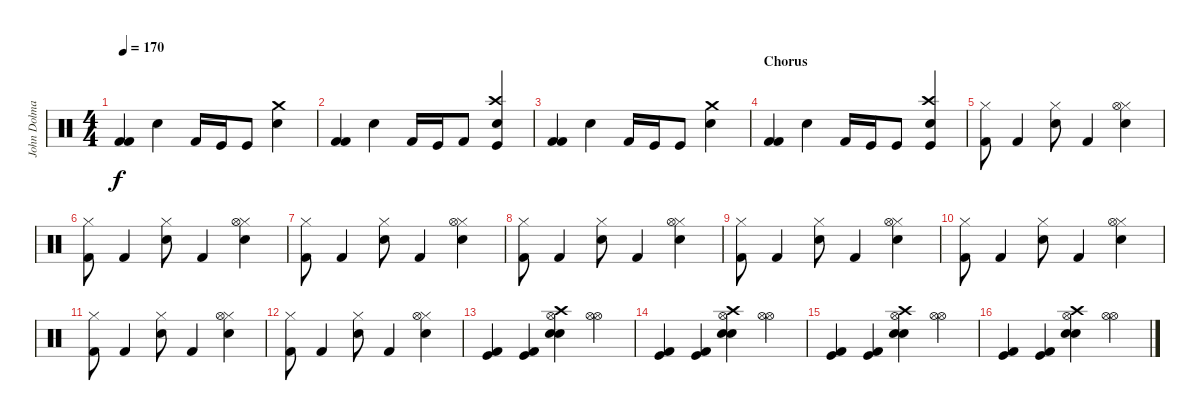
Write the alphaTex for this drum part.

\track ("John Dolmayan" "John Dolma") {instrument percussion}
\staff {score}
\articulation defaults
\ts (4 4)
\tempo 170
\clef neutral
\ks c
("Kick (hit) 2" "Kick (hit) 2").4{dy f} "Snare (hit) 2".4 "Kick (hit) 2".16 "Kick (hit)".16 "Kick (hit)".8 ("Crash medium (hit)" "Snare (hit) 2").4 |
("Kick (hit) 2" "Kick (hit) 2").4 "Snare (hit) 2".4 "Kick (hit) 2".16 "Kick (hit)".16 "Kick (hit) 2".8 ("Crash high (hit)" "Electric Snare (hit)" "Kick (hit)").4 |
("Kick (hit) 2" "Kick (hit) 2").4 "Snare (hit) 2".4 "Kick (hit) 2".16 "Kick (hit)".16 "Kick (hit)".8 ("Crash medium (hit)" "Snare (hit) 2").4 |
\section ("" "Chorus")
("Kick (hit) 2" "Kick (hit) 2").4 "Snare (hit) 2".4 "Kick (hit) 2".16 "Kick (hit)".16 "Kick (hit)".8 ("Crash high (hit)" "Electric Snare (hit)" "Kick (hit)").4 |
("Hi-Hat (closed)" "Kick (hit) 2").8 "Kick (hit) 2".4 ("Hi-Hat (closed)" "Snare (hit) 2").8 "Kick (hit) 2".4 ("Hi-Hat (closed)" "Hi-Hat (open)" "Snare (hit) 2").4 |
("Hi-Hat (closed)" "Kick (hit) 2").8 "Kick (hit) 2".4 ("Hi-Hat (closed)" "Snare (hit) 2").8 "Kick (hit) 2".4 ("Hi-Hat (closed)" "Hi-Hat (open)" "Snare (hit) 2").4 |
("Hi-Hat (closed)" "Kick (hit) 2").8 "Kick (hit) 2".4 ("Hi-Hat (closed)" "Snare (hit) 2").8 "Kick (hit) 2".4 ("Hi-Hat (closed)" "Hi-Hat (open)" "Snare (hit) 2").4 |
("Hi-Hat (closed)" "Kick (hit) 2").8 "Kick (hit) 2".4 ("Hi-Hat (closed)" "Snare (hit) 2").8 "Kick (hit) 2".4 ("Hi-Hat (closed)" "Hi-Hat (open)" "Snare (hit) 2").4 |
("Hi-Hat (closed)" "Kick (hit) 2").8 "Kick (hit) 2".4 ("Hi-Hat (closed)" "Snare (hit) 2").8 "Kick (hit) 2".4 ("Hi-Hat (closed)" "Hi-Hat (open)" "Snare (hit) 2").4 |
("Hi-Hat (closed)" "Kick (hit) 2").8 "Kick (hit) 2".4 ("Hi-Hat (closed)" "Snare (hit) 2").8 "Kick (hit) 2".4 ("Hi-Hat (closed)" "Hi-Hat (open)" "Snare (hit) 2").4 |
("Hi-Hat (closed)" "Kick (hit) 2").8 "Kick (hit) 2".4 ("Hi-Hat (closed)" "Snare (hit) 2").8 "Kick (hit) 2".4 ("Hi-Hat (closed)" "Hi-Hat (open)" "Snare (hit) 2").4 |
("Hi-Hat (closed)" "Kick (hit) 2").8 "Kick (hit) 2".4 ("Hi-Hat (closed)" "Snare (hit) 2").8 "Kick (hit) 2".4 ("Hi-Hat (closed)" "Hi-Hat (open)" "Snare (hit) 2").4 |
("Kick (hit)" "Kick (hit) 2").4 ("Kick (hit)" "Kick (hit) 2").4 ("Hi-Hat (open)" "Snare (hit) 2" "Crash high (hit)" "Electric Snare (hit)").4 ("Hi-Hat (open)" "Hi-Hat (open)").4 |
("Kick (hit)" "Kick (hit) 2").4 ("Kick (hit)" "Kick (hit) 2").4 ("Hi-Hat (open)" "Snare (hit) 2" "Crash high (hit)" "Electric Snare (hit)").4 ("Hi-Hat (open)" "Hi-Hat (open)").4 |
("Kick (hit)" "Kick (hit) 2").4 ("Kick (hit)" "Kick (hit) 2").4 ("Hi-Hat (open)" "Snare (hit) 2" "Crash high (hit)" "Electric Snare (hit)").4 ("Hi-Hat (open)" "Hi-Hat (open)").4 |
("Kick (hit)" "Kick (hit) 2").4 ("Kick (hit)" "Kick (hit) 2").4 ("Hi-Hat (open)" "Snare (hit) 2" "Crash high (hit)" "Electric Snare (hit)").4 ("Hi-Hat (open)" "Hi-Hat (open)").4
